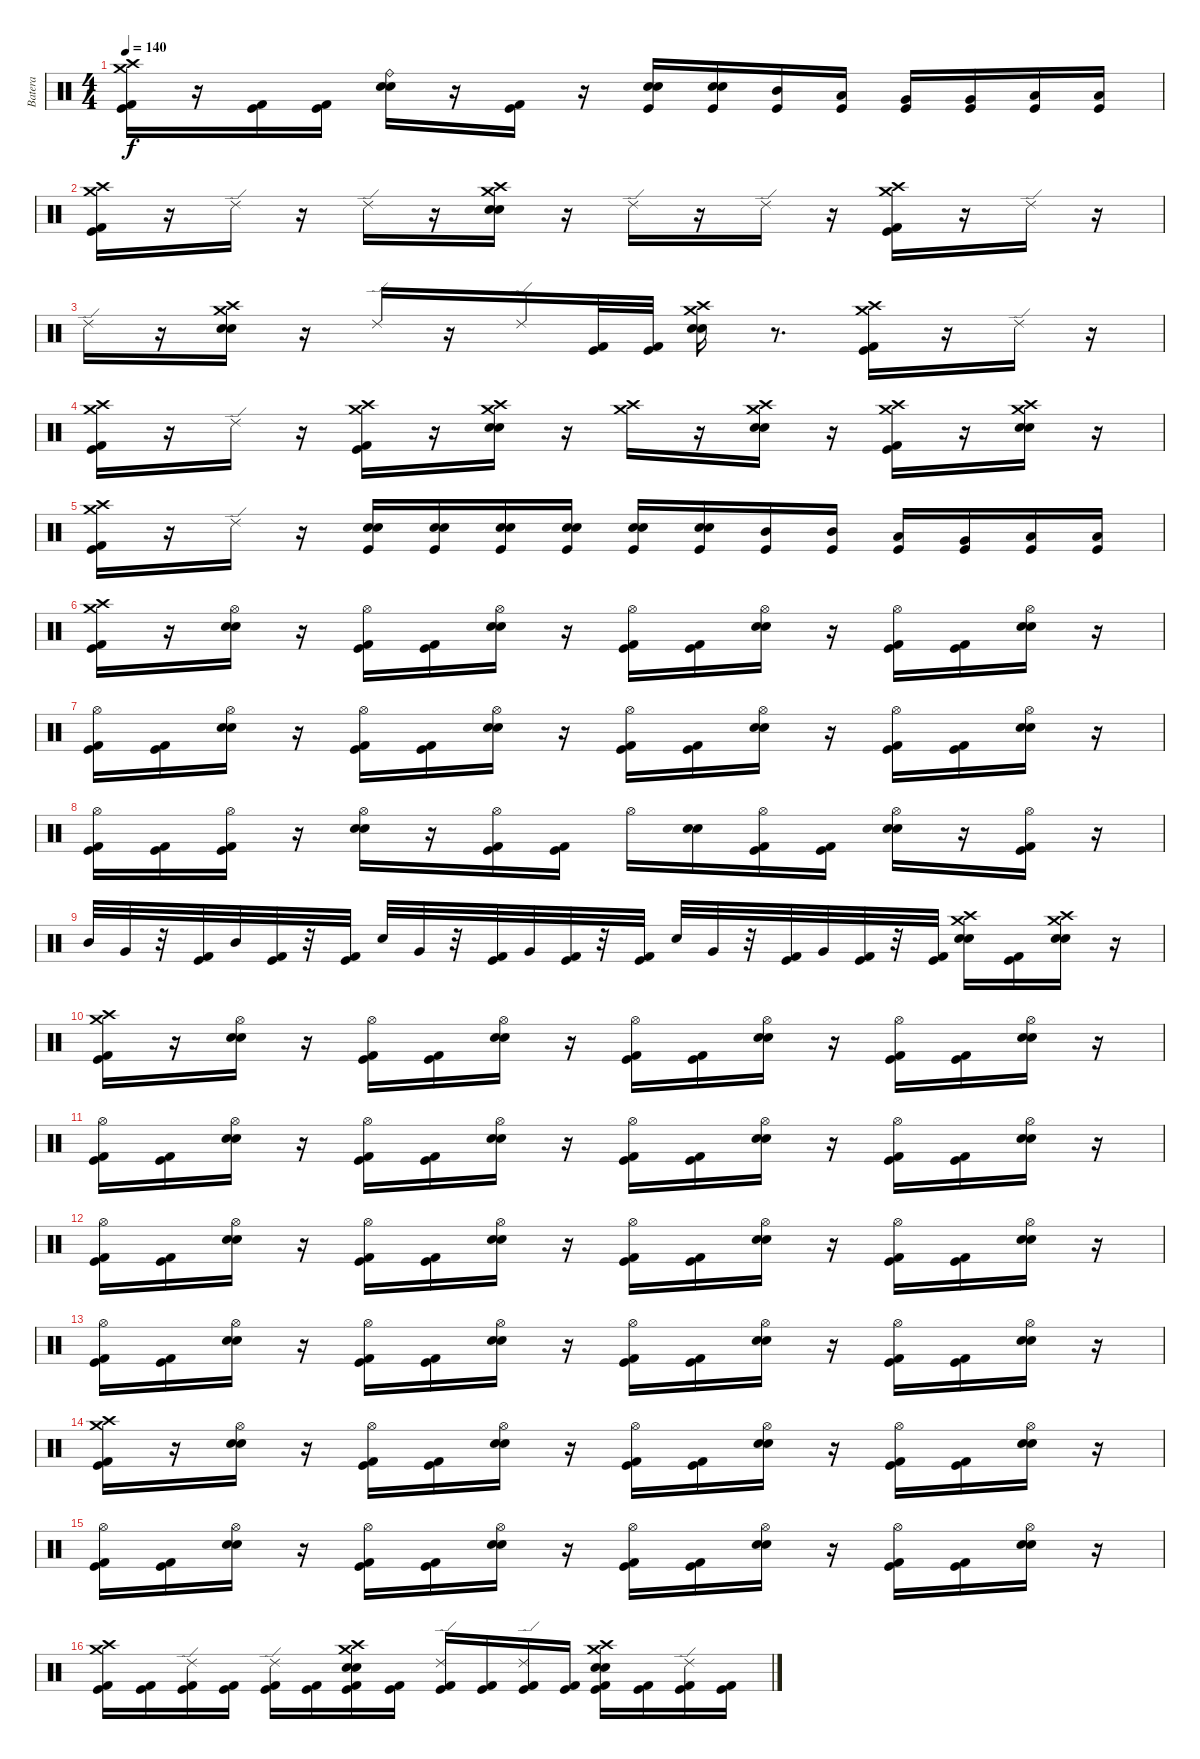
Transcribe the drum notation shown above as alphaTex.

\track ("Batera" "Batera") {instrument percussion}
\staff {score}
\articulation defaults
\ts (4 4)
\tempo 140
\clef neutral
\ks c
("Crash high (hit)" "Crash medium (hit)" "Kick (hit) 2" "Kick (hit)").16{dy f} r.16 ("Kick (hit) 2" "Kick (hit)").16 ("Kick (hit) 2" "Kick (hit)").16 ("Ride (bell)" "Electric Snare (hit)" "Snare (hit) 2").16 r.16 ("Kick (hit) 2" "Kick (hit)").16 r.16 ("Kick (hit)" "Electric Snare (hit)" "Snare (hit) 2").16 ("Kick (hit)" "Electric Snare (hit)" "Snare (hit) 2").16 ("Mid Tom (hit)" "Kick (hit)").16 ("Low Tom (hit)" "Kick (hit)").16 ("Very Low Tom (hit)" "Kick (hit)").16 ("Very Low Tom (hit)" "Kick (hit)").16 ("Low Floor Tom (hit)" "Kick (hit)").16 ("Low Floor Tom (hit)" "Kick (hit)").16 |
("Crash high (hit)" "Crash medium (hit)" "Kick (hit) 2" "Kick (hit)").16 r.16 "Ride (edge) 2".16 r.16 "Ride (edge) 2".16 r.16 ("Electric Snare (hit)" "Snare (hit) 2" "Crash high (hit)" "Crash medium (hit)").16 r.16 "Ride (edge) 2".16 r.16 "Ride (edge) 2".16 r.16 ("Kick (hit) 2" "Kick (hit)" "Crash high (hit)" "Crash medium (hit)").16 r.16 "Ride (edge) 2".16 r.16 |
"Ride (edge) 2".16 r.16 ("Crash high (hit)" "Electric Snare (hit)" "Snare (hit) 2" "Crash medium (hit)").16 r.16 "Ride (edge) 2".16 r.16 "Ride (edge) 2".16 ("Kick (hit) 2" "Kick (hit)").32 ("Kick (hit)" "Kick (hit) 2").32 ("Crash medium (hit)" "Crash high (hit)" "Electric Snare (hit)" "Snare (hit) 2").16 r.8{d} ("Crash high (hit)" "Crash medium (hit)" "Kick (hit) 2" "Kick (hit)").16 r.16 "Ride (edge) 2".16 r.16 |
("Crash high (hit)" "Crash medium (hit)" "Kick (hit) 2" "Kick (hit)").16 r.16 "Ride (edge) 2".16 r.16 ("Crash high (hit)" "Crash medium (hit)" "Kick (hit) 2" "Kick (hit)").16 r.16 ("Snare (hit) 2" "Electric Snare (hit)" "Crash high (hit)" "Crash medium (hit)").16 r.16 ("Crash high (hit)" "Crash medium (hit)").16 r.16 ("Electric Snare (hit)" "Snare (hit) 2" "Crash high (hit)" "Crash medium (hit)").16 r.16 ("Kick (hit) 2" "Kick (hit)" "Crash high (hit)" "Crash medium (hit)").16 r.16 ("Electric Snare (hit)" "Snare (hit) 2" "Crash high (hit)" "Crash medium (hit)").16 r.16 |
("Crash high (hit)" "Crash medium (hit)" "Kick (hit) 2" "Kick (hit)").16 r.16 "Ride (edge) 2".16 r.16 ("Kick (hit)" "Electric Snare (hit)" "Snare (hit) 2").16 ("Kick (hit)" "Electric Snare (hit)" "Snare (hit) 2").16 ("Kick (hit)" "Electric Snare (hit)" "Snare (hit) 2").16 ("Kick (hit)" "Snare (hit) 2" "Electric Snare (hit)").16 ("Kick (hit)" "Electric Snare (hit)" "Snare (hit) 2").16 ("Kick (hit)" "Electric Snare (hit)" "Snare (hit) 2").16 ("Mid Tom (hit)" "Kick (hit)").16 ("Mid Tom (hit)" "Kick (hit)").16 ("Low Tom (hit)" "Kick (hit)").16 ("Very Low Tom (hit)" "Kick (hit)").16 ("Low Floor Tom (hit)" "Kick (hit)").16 ("Low Floor Tom (hit)" "Kick (hit)").16 |
("Crash high (hit)" "Crash medium (hit)" "Kick (hit) 2" "Kick (hit)").16 r.16 ("Electric Snare (hit)" "Snare (hit) 2" "Hi-Hat (open)").16 r.16 ("Hi-Hat (open)" "Kick (hit) 2" "Kick (hit)").16 ("Kick (hit) 2" "Kick (hit)").16 ("Hi-Hat (open)" "Electric Snare (hit)" "Snare (hit) 2").16 r.16 ("Hi-Hat (open)" "Kick (hit)" "Kick (hit) 2").16 ("Kick (hit) 2" "Kick (hit)").16 ("Hi-Hat (open)" "Electric Snare (hit)" "Snare (hit) 2").16 r.16 ("Hi-Hat (open)" "Kick (hit) 2" "Kick (hit)").16 ("Kick (hit) 2" "Kick (hit)").16 ("Hi-Hat (open)" "Electric Snare (hit)" "Snare (hit) 2").16 r.16 |
("Hi-Hat (open)" "Kick (hit)" "Kick (hit) 2").16 ("Kick (hit) 2" "Kick (hit)").16 ("Hi-Hat (open)" "Electric Snare (hit)" "Snare (hit) 2").16 r.16 ("Hi-Hat (open)" "Kick (hit) 2" "Kick (hit)").16 ("Kick (hit) 2" "Kick (hit)").16 ("Hi-Hat (open)" "Electric Snare (hit)" "Snare (hit) 2").16 r.16 ("Hi-Hat (open)" "Kick (hit)" "Kick (hit) 2").16 ("Kick (hit) 2" "Kick (hit)").16 ("Hi-Hat (open)" "Electric Snare (hit)" "Snare (hit) 2").16 r.16 ("Hi-Hat (open)" "Kick (hit) 2" "Kick (hit)").16 ("Kick (hit) 2" "Kick (hit)").16 ("Hi-Hat (open)" "Electric Snare (hit)" "Snare (hit) 2").16 r.16 |
("Hi-Hat (open)" "Kick (hit)" "Kick (hit) 2").16 ("Kick (hit) 2" "Kick (hit)").16 ("Kick (hit) 2" "Kick (hit)" "Hi-Hat (open)").16 r.16 ("Electric Snare (hit)" "Snare (hit) 2" "Hi-Hat (open)").16 r.16 ("Kick (hit) 2" "Kick (hit)" "Hi-Hat (open)").16 ("Kick (hit) 2" "Kick (hit)").16 "Hi-Hat (open)".16 ("Electric Snare (hit)" "Snare (hit) 2").16 ("Kick (hit)" "Kick (hit) 2" "Hi-Hat (open)").16 ("Kick (hit) 2" "Kick (hit)").16 ("Electric Snare (hit)" "Snare (hit) 2" "Hi-Hat (open)").16 r.16 ("Kick (hit)" "Kick (hit) 2" "Hi-Hat (open)").16 r.16 |
"Mid Tom (hit)".32 "Very Low Tom (hit)".32 r.32 ("Kick (hit) 2" "Kick (hit)").32 "Mid Tom (hit)".32 ("Kick (hit) 2" "Kick (hit)").32 r.32 ("Kick (hit) 2" "Kick (hit)").32 "Electric Snare (hit)".32 "Very Low Tom (hit)".32 r.32 ("Kick (hit) 2" "Kick (hit)").32 "Very Low Tom (hit)".32 ("Kick (hit) 2" "Kick (hit)").32 r.32 ("Kick (hit) 2" "Kick (hit)").32 "Electric Snare (hit)".32 "Very Low Tom (hit)".32 r.32 ("Kick (hit)" "Kick (hit) 2").32 "Very Low Tom (hit)".32 ("Kick (hit) 2" "Kick (hit)").32 r.32 ("Kick (hit) 2" "Kick (hit)").32 ("Crash high (hit)" "Crash medium (hit)" "Electric Snare (hit)" "Snare (hit) 2").16 ("Kick (hit) 2" "Kick (hit)").16 ("Crash medium (hit)" "Crash high (hit)" "Electric Snare (hit)" "Snare (hit) 2").16 r.16 |
("Crash high (hit)" "Crash medium (hit)" "Kick (hit)" "Kick (hit) 2").16 r.16 ("Hi-Hat (open)" "Electric Snare (hit)" "Snare (hit) 2").16 r.16 ("Hi-Hat (open)" "Kick (hit) 2" "Kick (hit)").16 ("Kick (hit) 2" "Kick (hit)").16 ("Hi-Hat (open)" "Electric Snare (hit)" "Snare (hit) 2").16 r.16 ("Hi-Hat (open)" "Kick (hit)" "Kick (hit) 2").16 ("Kick (hit) 2" "Kick (hit)").16 ("Hi-Hat (open)" "Electric Snare (hit)" "Snare (hit) 2").16 r.16 ("Hi-Hat (open)" "Kick (hit) 2" "Kick (hit)").16 ("Kick (hit) 2" "Kick (hit)").16 ("Hi-Hat (open)" "Electric Snare (hit)" "Snare (hit) 2").16 r.16 |
("Hi-Hat (open)" "Kick (hit)" "Kick (hit) 2").16 ("Kick (hit) 2" "Kick (hit)").16 ("Hi-Hat (open)" "Electric Snare (hit)" "Snare (hit) 2").16 r.16 ("Hi-Hat (open)" "Kick (hit) 2" "Kick (hit)").16 ("Kick (hit) 2" "Kick (hit)").16 ("Hi-Hat (open)" "Electric Snare (hit)" "Snare (hit) 2").16 r.16 ("Hi-Hat (open)" "Kick (hit)" "Kick (hit) 2").16 ("Kick (hit) 2" "Kick (hit)").16 ("Hi-Hat (open)" "Electric Snare (hit)" "Snare (hit) 2").16 r.16 ("Hi-Hat (open)" "Kick (hit) 2" "Kick (hit)").16 ("Kick (hit) 2" "Kick (hit)").16 ("Hi-Hat (open)" "Electric Snare (hit)" "Snare (hit) 2").16 r.16 |
("Hi-Hat (open)" "Kick (hit)" "Kick (hit) 2").16 ("Kick (hit) 2" "Kick (hit)").16 ("Hi-Hat (open)" "Electric Snare (hit)" "Snare (hit) 2").16 r.16 ("Hi-Hat (open)" "Kick (hit) 2" "Kick (hit)").16 ("Kick (hit) 2" "Kick (hit)").16 ("Hi-Hat (open)" "Electric Snare (hit)" "Snare (hit) 2").16 r.16 ("Hi-Hat (open)" "Kick (hit)" "Kick (hit) 2").16 ("Kick (hit) 2" "Kick (hit)").16 ("Hi-Hat (open)" "Electric Snare (hit)" "Snare (hit) 2").16 r.16 ("Hi-Hat (open)" "Kick (hit) 2" "Kick (hit)").16 ("Kick (hit) 2" "Kick (hit)").16 ("Hi-Hat (open)" "Electric Snare (hit)" "Snare (hit) 2").16 r.16 |
("Hi-Hat (open)" "Kick (hit)" "Kick (hit) 2").16 ("Kick (hit) 2" "Kick (hit)").16 ("Hi-Hat (open)" "Electric Snare (hit)" "Snare (hit) 2").16 r.16 ("Hi-Hat (open)" "Kick (hit) 2" "Kick (hit)").16 ("Kick (hit) 2" "Kick (hit)").16 ("Hi-Hat (open)" "Electric Snare (hit)" "Snare (hit) 2").16 r.16 ("Hi-Hat (open)" "Kick (hit)" "Kick (hit) 2").16 ("Kick (hit) 2" "Kick (hit)").16 ("Hi-Hat (open)" "Electric Snare (hit)" "Snare (hit) 2").16 r.16 ("Hi-Hat (open)" "Kick (hit) 2" "Kick (hit)").16 ("Kick (hit) 2" "Kick (hit)").16 ("Hi-Hat (open)" "Electric Snare (hit)" "Snare (hit) 2").16 r.16 |
("Crash high (hit)" "Crash medium (hit)" "Kick (hit)" "Kick (hit) 2").16 r.16 ("Hi-Hat (open)" "Electric Snare (hit)" "Snare (hit) 2").16 r.16 ("Hi-Hat (open)" "Kick (hit) 2" "Kick (hit)").16 ("Kick (hit) 2" "Kick (hit)").16 ("Hi-Hat (open)" "Electric Snare (hit)" "Snare (hit) 2").16 r.16 ("Hi-Hat (open)" "Kick (hit)" "Kick (hit) 2").16 ("Kick (hit) 2" "Kick (hit)").16 ("Hi-Hat (open)" "Electric Snare (hit)" "Snare (hit) 2").16 r.16 ("Hi-Hat (open)" "Kick (hit) 2" "Kick (hit)").16 ("Kick (hit) 2" "Kick (hit)").16 ("Hi-Hat (open)" "Electric Snare (hit)" "Snare (hit) 2").16 r.16 |
("Hi-Hat (open)" "Kick (hit)" "Kick (hit) 2").16 ("Kick (hit) 2" "Kick (hit)").16 ("Hi-Hat (open)" "Electric Snare (hit)" "Snare (hit) 2").16 r.16 ("Hi-Hat (open)" "Kick (hit) 2" "Kick (hit)").16 ("Kick (hit) 2" "Kick (hit)").16 ("Hi-Hat (open)" "Electric Snare (hit)" "Snare (hit) 2").16 r.16 ("Hi-Hat (open)" "Kick (hit)" "Kick (hit) 2").16 ("Kick (hit) 2" "Kick (hit)").16 ("Hi-Hat (open)" "Electric Snare (hit)" "Snare (hit) 2").16 r.16 ("Hi-Hat (open)" "Kick (hit) 2" "Kick (hit)").16 ("Kick (hit) 2" "Kick (hit)").16 ("Hi-Hat (open)" "Electric Snare (hit)" "Snare (hit) 2").16 r.16 |
("Crash high (hit)" "Crash medium (hit)" "Kick (hit) 2" "Kick (hit)").16 ("Kick (hit) 2" "Kick (hit)").16 ("Ride (edge) 2" "Kick (hit) 2" "Kick (hit)").16 ("Kick (hit) 2" "Kick (hit)").16 ("Ride (edge) 2" "Kick (hit) 2" "Kick (hit)").16 ("Kick (hit) 2" "Kick (hit)").16 ("Electric Snare (hit)" "Snare (hit) 2" "Crash high (hit)" "Crash medium (hit)" "Kick (hit) 2" "Kick (hit)").16 ("Kick (hit) 2" "Kick (hit)").16 ("Ride (edge) 2" "Kick (hit)" "Kick (hit) 2").16 ("Kick (hit) 2" "Kick (hit)").16 ("Ride (edge) 2" "Kick (hit) 2" "Kick (hit)").16 ("Kick (hit) 2" "Kick (hit)").16 ("Crash high (hit)" "Crash medium (hit)" "Electric Snare (hit)" "Snare (hit) 2" "Kick (hit) 2" "Kick (hit)").16 ("Kick (hit) 2" "Kick (hit)").16 ("Ride (edge) 2" "Kick (hit) 2" "Kick (hit)").16 ("Kick (hit) 2" "Kick (hit)").16
